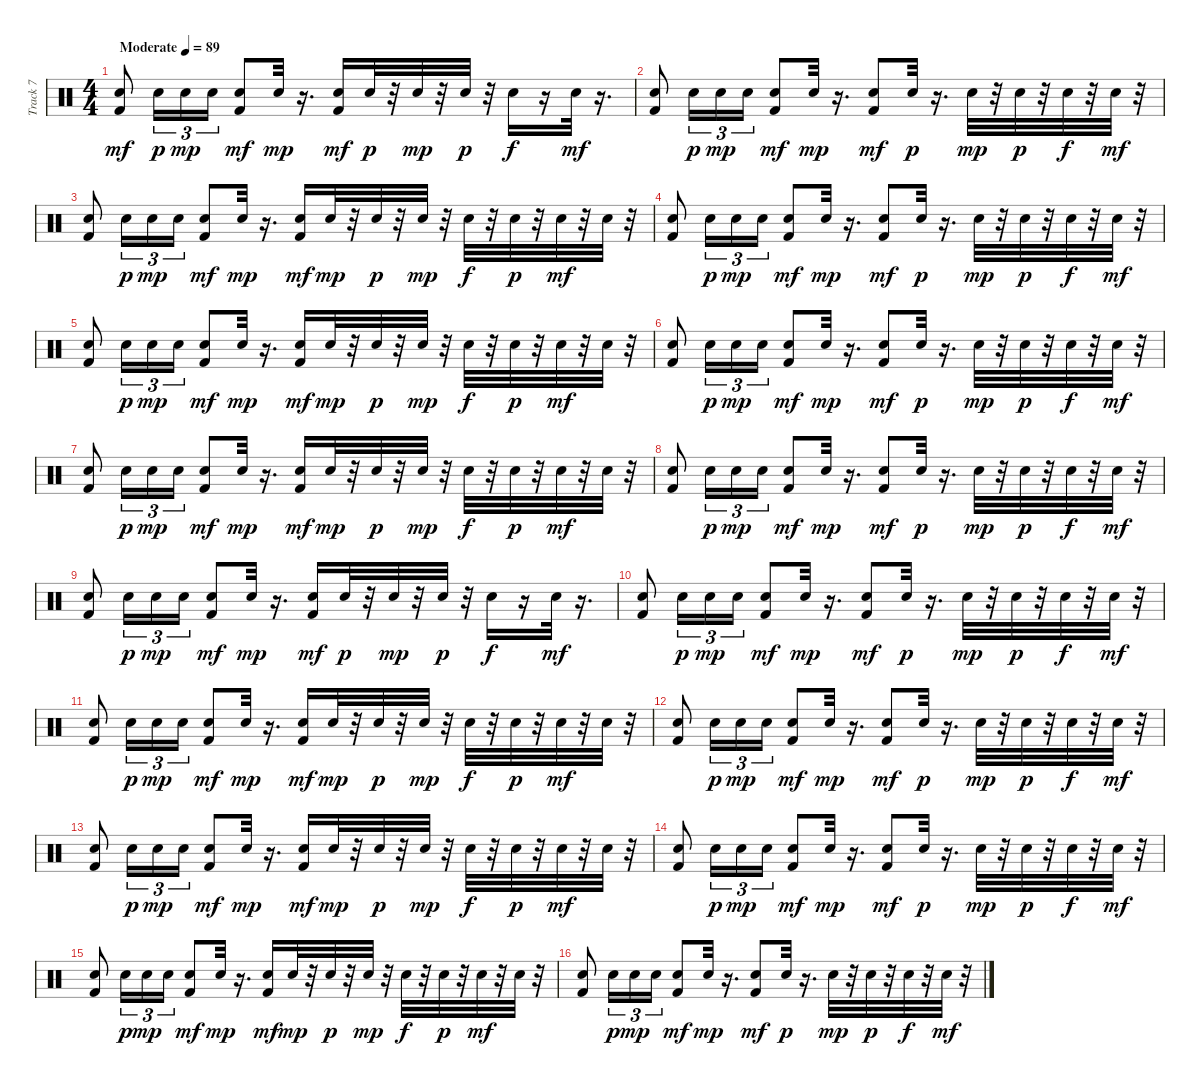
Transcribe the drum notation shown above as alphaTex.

\track ("Track 7" "Track 7") {instrument percussion}
\staff {score}
\articulation defaults
\ts (4 4)
\tempo (89 "Moderate")
\clef neutral
\ks c
("Electric Snare (hit)" "Kick (hit) 2").8{dy mf} "Electric Snare (hit)".16{tu (3 2) dy p} "Electric Snare (hit)".16{tu (3 2) dy mp} "Electric Snare (hit)".16{tu (3 2)} ("Electric Snare (hit)" "Kick (hit) 2").8{dy mf} "Electric Snare (hit)".32{dy mp} r.16{d} ("Electric Snare (hit)" "Kick (hit) 2").16{dy mf} "Electric Snare (hit)".32{dy p} r.32 "Electric Snare (hit)".32{dy mp} r.32 "Electric Snare (hit)".32{dy p} r.32 "Electric Snare (hit)".16{dy f} r.16 "Electric Snare (hit)".32{dy mf} r.16{d} |
("Electric Snare (hit)" "Kick (hit) 2").8 "Electric Snare (hit)".16{tu (3 2) dy p} "Electric Snare (hit)".16{tu (3 2) dy mp} "Electric Snare (hit)".16{tu (3 2)} ("Electric Snare (hit)" "Kick (hit) 2").8{dy mf} "Electric Snare (hit)".32{dy mp} r.16{d} ("Electric Snare (hit)" "Kick (hit) 2").8{dy mf} "Electric Snare (hit)".32{dy p} r.16{d} "Electric Snare (hit)".32{dy mp} r.32 "Electric Snare (hit)".32{dy p} r.32 "Electric Snare (hit)".32{dy f} r.32 "Electric Snare (hit)".32{dy mf} r.32 |
("Electric Snare (hit)" "Kick (hit) 2").8 "Electric Snare (hit)".16{tu (3 2) dy p} "Electric Snare (hit)".16{tu (3 2) dy mp} "Electric Snare (hit)".16{tu (3 2)} ("Electric Snare (hit)" "Kick (hit) 2").8{dy mf} "Electric Snare (hit)".32{dy mp} r.16{d} ("Electric Snare (hit)" "Kick (hit) 2").16{dy mf} "Electric Snare (hit)".32{dy mp} r.32 "Electric Snare (hit)".32{dy p} r.32 "Electric Snare (hit)".32{dy mp} r.32 "Electric Snare (hit)".32{dy f} r.32 "Electric Snare (hit)".32{dy p} r.32 "Electric Snare (hit)".32{dy mf} r.32 "Electric Snare (hit)".32 r.32 |
("Electric Snare (hit)" "Kick (hit) 2").8 "Electric Snare (hit)".16{tu (3 2) dy p} "Electric Snare (hit)".16{tu (3 2) dy mp} "Electric Snare (hit)".16{tu (3 2)} ("Electric Snare (hit)" "Kick (hit) 2").8{dy mf} "Electric Snare (hit)".32{dy mp} r.16{d} ("Electric Snare (hit)" "Kick (hit) 2").8{dy mf} "Electric Snare (hit)".32{dy p} r.16{d} "Electric Snare (hit)".32{dy mp} r.32 "Electric Snare (hit)".32{dy p} r.32 "Electric Snare (hit)".32{dy f} r.32 "Electric Snare (hit)".32{dy mf} r.32 |
("Electric Snare (hit)" "Kick (hit) 2").8 "Electric Snare (hit)".16{tu (3 2) dy p} "Electric Snare (hit)".16{tu (3 2) dy mp} "Electric Snare (hit)".16{tu (3 2)} ("Electric Snare (hit)" "Kick (hit) 2").8{dy mf} "Electric Snare (hit)".32{dy mp} r.16{d} ("Electric Snare (hit)" "Kick (hit) 2").16{dy mf} "Electric Snare (hit)".32{dy mp} r.32 "Electric Snare (hit)".32{dy p} r.32 "Electric Snare (hit)".32{dy mp} r.32 "Electric Snare (hit)".32{dy f} r.32 "Electric Snare (hit)".32{dy p} r.32 "Electric Snare (hit)".32{dy mf} r.32 "Electric Snare (hit)".32 r.32 |
("Electric Snare (hit)" "Kick (hit) 2").8 "Electric Snare (hit)".16{tu (3 2) dy p} "Electric Snare (hit)".16{tu (3 2) dy mp} "Electric Snare (hit)".16{tu (3 2)} ("Electric Snare (hit)" "Kick (hit) 2").8{dy mf} "Electric Snare (hit)".32{dy mp} r.16{d} ("Electric Snare (hit)" "Kick (hit) 2").8{dy mf} "Electric Snare (hit)".32{dy p} r.16{d} "Electric Snare (hit)".32{dy mp} r.32 "Electric Snare (hit)".32{dy p} r.32 "Electric Snare (hit)".32{dy f} r.32 "Electric Snare (hit)".32{dy mf} r.32 |
("Electric Snare (hit)" "Kick (hit) 2").8 "Electric Snare (hit)".16{tu (3 2) dy p} "Electric Snare (hit)".16{tu (3 2) dy mp} "Electric Snare (hit)".16{tu (3 2)} ("Electric Snare (hit)" "Kick (hit) 2").8{dy mf} "Electric Snare (hit)".32{dy mp} r.16{d} ("Electric Snare (hit)" "Kick (hit) 2").16{dy mf} "Electric Snare (hit)".32{dy mp} r.32 "Electric Snare (hit)".32{dy p} r.32 "Electric Snare (hit)".32{dy mp} r.32 "Electric Snare (hit)".32{dy f} r.32 "Electric Snare (hit)".32{dy p} r.32 "Electric Snare (hit)".32{dy mf} r.32 "Electric Snare (hit)".32 r.32 |
("Electric Snare (hit)" "Kick (hit) 2").8 "Electric Snare (hit)".16{tu (3 2) dy p} "Electric Snare (hit)".16{tu (3 2) dy mp} "Electric Snare (hit)".16{tu (3 2)} ("Electric Snare (hit)" "Kick (hit) 2").8{dy mf} "Electric Snare (hit)".32{dy mp} r.16{d} ("Electric Snare (hit)" "Kick (hit) 2").8{dy mf} "Electric Snare (hit)".32{dy p} r.16{d} "Electric Snare (hit)".32{dy mp} r.32 "Electric Snare (hit)".32{dy p} r.32 "Electric Snare (hit)".32{dy f} r.32 "Electric Snare (hit)".32{dy mf} r.32 |
("Electric Snare (hit)" "Kick (hit) 2").8 "Electric Snare (hit)".16{tu (3 2) dy p} "Electric Snare (hit)".16{tu (3 2) dy mp} "Electric Snare (hit)".16{tu (3 2)} ("Electric Snare (hit)" "Kick (hit) 2").8{dy mf} "Electric Snare (hit)".32{dy mp} r.16{d} ("Electric Snare (hit)" "Kick (hit) 2").16{dy mf} "Electric Snare (hit)".32{dy p} r.32 "Electric Snare (hit)".32{dy mp} r.32 "Electric Snare (hit)".32{dy p} r.32 "Electric Snare (hit)".16{dy f} r.16 "Electric Snare (hit)".32{dy mf} r.16{d} |
("Electric Snare (hit)" "Kick (hit) 2").8 "Electric Snare (hit)".16{tu (3 2) dy p} "Electric Snare (hit)".16{tu (3 2) dy mp} "Electric Snare (hit)".16{tu (3 2)} ("Electric Snare (hit)" "Kick (hit) 2").8{dy mf} "Electric Snare (hit)".32{dy mp} r.16{d} ("Electric Snare (hit)" "Kick (hit) 2").8{dy mf} "Electric Snare (hit)".32{dy p} r.16{d} "Electric Snare (hit)".32{dy mp} r.32 "Electric Snare (hit)".32{dy p} r.32 "Electric Snare (hit)".32{dy f} r.32 "Electric Snare (hit)".32{dy mf} r.32 |
("Electric Snare (hit)" "Kick (hit) 2").8 "Electric Snare (hit)".16{tu (3 2) dy p} "Electric Snare (hit)".16{tu (3 2) dy mp} "Electric Snare (hit)".16{tu (3 2)} ("Electric Snare (hit)" "Kick (hit) 2").8{dy mf} "Electric Snare (hit)".32{dy mp} r.16{d} ("Electric Snare (hit)" "Kick (hit) 2").16{dy mf} "Electric Snare (hit)".32{dy mp} r.32 "Electric Snare (hit)".32{dy p} r.32 "Electric Snare (hit)".32{dy mp} r.32 "Electric Snare (hit)".32{dy f} r.32 "Electric Snare (hit)".32{dy p} r.32 "Electric Snare (hit)".32{dy mf} r.32 "Electric Snare (hit)".32 r.32 |
("Electric Snare (hit)" "Kick (hit) 2").8 "Electric Snare (hit)".16{tu (3 2) dy p} "Electric Snare (hit)".16{tu (3 2) dy mp} "Electric Snare (hit)".16{tu (3 2)} ("Electric Snare (hit)" "Kick (hit) 2").8{dy mf} "Electric Snare (hit)".32{dy mp} r.16{d} ("Electric Snare (hit)" "Kick (hit) 2").8{dy mf} "Electric Snare (hit)".32{dy p} r.16{d} "Electric Snare (hit)".32{dy mp} r.32 "Electric Snare (hit)".32{dy p} r.32 "Electric Snare (hit)".32{dy f} r.32 "Electric Snare (hit)".32{dy mf} r.32 |
("Electric Snare (hit)" "Kick (hit) 2").8 "Electric Snare (hit)".16{tu (3 2) dy p} "Electric Snare (hit)".16{tu (3 2) dy mp} "Electric Snare (hit)".16{tu (3 2)} ("Electric Snare (hit)" "Kick (hit) 2").8{dy mf} "Electric Snare (hit)".32{dy mp} r.16{d} ("Electric Snare (hit)" "Kick (hit) 2").16{dy mf} "Electric Snare (hit)".32{dy mp} r.32 "Electric Snare (hit)".32{dy p} r.32 "Electric Snare (hit)".32{dy mp} r.32 "Electric Snare (hit)".32{dy f} r.32 "Electric Snare (hit)".32{dy p} r.32 "Electric Snare (hit)".32{dy mf} r.32 "Electric Snare (hit)".32 r.32 |
("Electric Snare (hit)" "Kick (hit) 2").8 "Electric Snare (hit)".16{tu (3 2) dy p} "Electric Snare (hit)".16{tu (3 2) dy mp} "Electric Snare (hit)".16{tu (3 2)} ("Electric Snare (hit)" "Kick (hit) 2").8{dy mf} "Electric Snare (hit)".32{dy mp} r.16{d} ("Electric Snare (hit)" "Kick (hit) 2").8{dy mf} "Electric Snare (hit)".32{dy p} r.16{d} "Electric Snare (hit)".32{dy mp} r.32 "Electric Snare (hit)".32{dy p} r.32 "Electric Snare (hit)".32{dy f} r.32 "Electric Snare (hit)".32{dy mf} r.32 |
("Electric Snare (hit)" "Kick (hit) 2").8 "Electric Snare (hit)".16{tu (3 2) dy p} "Electric Snare (hit)".16{tu (3 2) dy mp} "Electric Snare (hit)".16{tu (3 2)} ("Electric Snare (hit)" "Kick (hit) 2").8{dy mf} "Electric Snare (hit)".32{dy mp} r.16{d} ("Electric Snare (hit)" "Kick (hit) 2").16{dy mf} "Electric Snare (hit)".32{dy mp} r.32 "Electric Snare (hit)".32{dy p} r.32 "Electric Snare (hit)".32{dy mp} r.32 "Electric Snare (hit)".32{dy f} r.32 "Electric Snare (hit)".32{dy p} r.32 "Electric Snare (hit)".32{dy mf} r.32 "Electric Snare (hit)".32 r.32 |
("Electric Snare (hit)" "Kick (hit) 2").8 "Electric Snare (hit)".16{tu (3 2) dy p} "Electric Snare (hit)".16{tu (3 2) dy mp} "Electric Snare (hit)".16{tu (3 2)} ("Electric Snare (hit)" "Kick (hit) 2").8{dy mf} "Electric Snare (hit)".32{dy mp} r.16{d} ("Electric Snare (hit)" "Kick (hit) 2").8{dy mf} "Electric Snare (hit)".32{dy p} r.16{d} "Electric Snare (hit)".32{dy mp} r.32 "Electric Snare (hit)".32{dy p} r.32 "Electric Snare (hit)".32{dy f} r.32 "Electric Snare (hit)".32{dy mf} r.32
